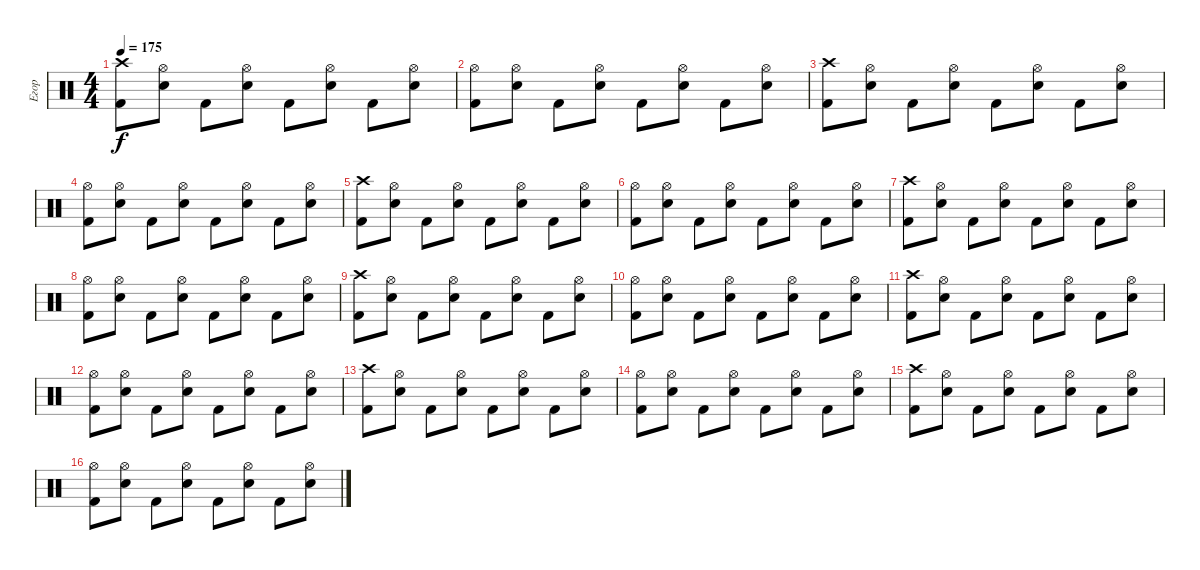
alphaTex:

\track ("Егор" "Егор") {instrument percussion}
\staff {score}
\articulation defaults
\ts (4 4)
\tempo 175
\clef neutral
\ks c
("Crash high (hit)" "Kick (hit) 2").8{dy f} ("Hi-Hat (open)" "Electric Snare (hit)").8 "Kick (hit) 2".8 ("Hi-Hat (open)" "Electric Snare (hit)").8 "Kick (hit) 2".8 ("Hi-Hat (open)" "Electric Snare (hit)").8 "Kick (hit) 2".8 ("Hi-Hat (open)" "Electric Snare (hit)").8 |
("Hi-Hat (open)" "Kick (hit) 2").8 ("Hi-Hat (open)" "Electric Snare (hit)").8 "Kick (hit) 2".8 ("Hi-Hat (open)" "Electric Snare (hit)").8 "Kick (hit) 2".8 ("Hi-Hat (open)" "Electric Snare (hit)").8 "Kick (hit) 2".8 ("Hi-Hat (open)" "Electric Snare (hit)").8 |
("Crash high (hit)" "Kick (hit) 2").8 ("Hi-Hat (open)" "Electric Snare (hit)").8 "Kick (hit) 2".8 ("Hi-Hat (open)" "Electric Snare (hit)").8 "Kick (hit) 2".8 ("Hi-Hat (open)" "Electric Snare (hit)").8 "Kick (hit) 2".8 ("Hi-Hat (open)" "Electric Snare (hit)").8 |
("Hi-Hat (open)" "Kick (hit) 2").8 ("Hi-Hat (open)" "Electric Snare (hit)").8 "Kick (hit) 2".8 ("Hi-Hat (open)" "Electric Snare (hit)").8 "Kick (hit) 2".8 ("Hi-Hat (open)" "Electric Snare (hit)").8 "Kick (hit) 2".8 ("Hi-Hat (open)" "Electric Snare (hit)").8 |
("Crash high (hit)" "Kick (hit) 2").8 ("Hi-Hat (open)" "Electric Snare (hit)").8 "Kick (hit) 2".8 ("Hi-Hat (open)" "Electric Snare (hit)").8 "Kick (hit) 2".8 ("Hi-Hat (open)" "Electric Snare (hit)").8 "Kick (hit) 2".8 ("Hi-Hat (open)" "Electric Snare (hit)").8 |
("Hi-Hat (open)" "Kick (hit) 2").8 ("Hi-Hat (open)" "Electric Snare (hit)").8 "Kick (hit) 2".8 ("Hi-Hat (open)" "Electric Snare (hit)").8 "Kick (hit) 2".8 ("Hi-Hat (open)" "Electric Snare (hit)").8 "Kick (hit) 2".8 ("Hi-Hat (open)" "Electric Snare (hit)").8 |
("Crash high (hit)" "Kick (hit) 2").8 ("Hi-Hat (open)" "Electric Snare (hit)").8 "Kick (hit) 2".8 ("Hi-Hat (open)" "Electric Snare (hit)").8 "Kick (hit) 2".8 ("Hi-Hat (open)" "Electric Snare (hit)").8 "Kick (hit) 2".8 ("Hi-Hat (open)" "Electric Snare (hit)").8 |
("Hi-Hat (open)" "Kick (hit) 2").8 ("Hi-Hat (open)" "Electric Snare (hit)").8 "Kick (hit) 2".8 ("Hi-Hat (open)" "Electric Snare (hit)").8 "Kick (hit) 2".8 ("Hi-Hat (open)" "Electric Snare (hit)").8 "Kick (hit) 2".8 ("Hi-Hat (open)" "Electric Snare (hit)").8 |
("Crash high (hit)" "Kick (hit) 2").8 ("Hi-Hat (open)" "Electric Snare (hit)").8 "Kick (hit) 2".8 ("Hi-Hat (open)" "Electric Snare (hit)").8 "Kick (hit) 2".8 ("Hi-Hat (open)" "Electric Snare (hit)").8 "Kick (hit) 2".8 ("Hi-Hat (open)" "Electric Snare (hit)").8 |
("Hi-Hat (open)" "Kick (hit) 2").8 ("Hi-Hat (open)" "Electric Snare (hit)").8 "Kick (hit) 2".8 ("Hi-Hat (open)" "Electric Snare (hit)").8 "Kick (hit) 2".8 ("Hi-Hat (open)" "Electric Snare (hit)").8 "Kick (hit) 2".8 ("Hi-Hat (open)" "Electric Snare (hit)").8 |
("Crash high (hit)" "Kick (hit) 2").8 ("Hi-Hat (open)" "Electric Snare (hit)").8 "Kick (hit) 2".8 ("Hi-Hat (open)" "Electric Snare (hit)").8 "Kick (hit) 2".8 ("Hi-Hat (open)" "Electric Snare (hit)").8 "Kick (hit) 2".8 ("Hi-Hat (open)" "Electric Snare (hit)").8 |
("Hi-Hat (open)" "Kick (hit) 2").8 ("Hi-Hat (open)" "Electric Snare (hit)").8 "Kick (hit) 2".8 ("Hi-Hat (open)" "Electric Snare (hit)").8 "Kick (hit) 2".8 ("Hi-Hat (open)" "Electric Snare (hit)").8 "Kick (hit) 2".8 ("Hi-Hat (open)" "Electric Snare (hit)").8 |
("Crash high (hit)" "Kick (hit) 2").8 ("Hi-Hat (open)" "Electric Snare (hit)").8 "Kick (hit) 2".8 ("Hi-Hat (open)" "Electric Snare (hit)").8 "Kick (hit) 2".8 ("Hi-Hat (open)" "Electric Snare (hit)").8 "Kick (hit) 2".8 ("Hi-Hat (open)" "Electric Snare (hit)").8 |
("Hi-Hat (open)" "Kick (hit) 2").8 ("Hi-Hat (open)" "Electric Snare (hit)").8 "Kick (hit) 2".8 ("Hi-Hat (open)" "Electric Snare (hit)").8 "Kick (hit) 2".8 ("Hi-Hat (open)" "Electric Snare (hit)").8 "Kick (hit) 2".8 ("Hi-Hat (open)" "Electric Snare (hit)").8 |
("Crash high (hit)" "Kick (hit) 2").8 ("Hi-Hat (open)" "Electric Snare (hit)").8 "Kick (hit) 2".8 ("Hi-Hat (open)" "Electric Snare (hit)").8 "Kick (hit) 2".8 ("Hi-Hat (open)" "Electric Snare (hit)").8 "Kick (hit) 2".8 ("Hi-Hat (open)" "Electric Snare (hit)").8 |
("Hi-Hat (open)" "Kick (hit) 2").8 ("Hi-Hat (open)" "Electric Snare (hit)").8 "Kick (hit) 2".8 ("Hi-Hat (open)" "Electric Snare (hit)").8 "Kick (hit) 2".8 ("Hi-Hat (open)" "Electric Snare (hit)").8 "Kick (hit) 2".8 ("Hi-Hat (open)" "Electric Snare (hit)").8
